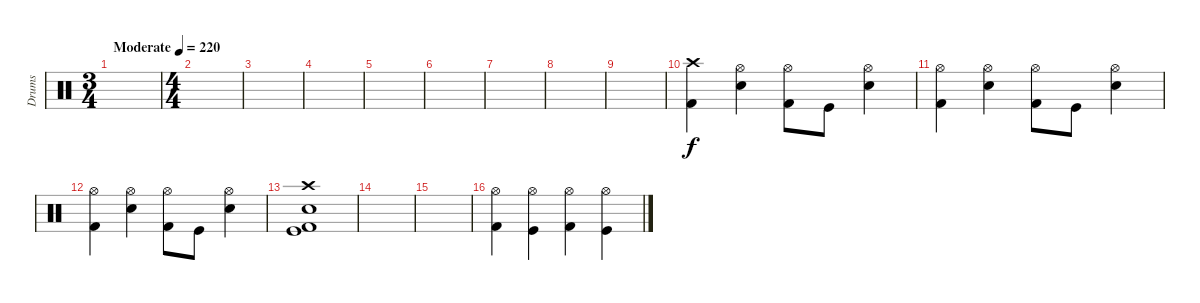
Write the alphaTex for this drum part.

\track ("Drums" "Drums") {instrument percussion}
\staff {score}
\articulation defaults
\ts (3 4)
\tempo (220 "Moderate")
\clef neutral
\ks c
|
\ts (4 4)
|
|
|
|
|
|
|
|
("Crash high (hit)" "Kick (hit) 2").4 ("Hi-Hat (open)" "Electric Snare (hit)").4 ("Hi-Hat (open)" "Kick (hit) 2").8 "Kick (hit)".8 ("Hi-Hat (open)" "Electric Snare (hit)").4 |
("Hi-Hat (open)" "Kick (hit) 2").4 ("Hi-Hat (open)" "Electric Snare (hit)").4 ("Hi-Hat (open)" "Kick (hit) 2").8 "Kick (hit)".8 ("Hi-Hat (open)" "Electric Snare (hit)").4 |
("Hi-Hat (open)" "Kick (hit) 2").4 ("Hi-Hat (open)" "Electric Snare (hit)").4 ("Hi-Hat (open)" "Kick (hit) 2").8 "Kick (hit)".8 ("Hi-Hat (open)" "Electric Snare (hit)").4 |
("Crash high (hit)" "Electric Snare (hit)" "Kick (hit)" "Kick (hit) 2").1 |
|
|
("Hi-Hat (open)" "Kick (hit) 2").4 ("Hi-Hat (open)" "Kick (hit)").4 ("Hi-Hat (open)" "Kick (hit) 2").4 ("Hi-Hat (open)" "Kick (hit)").4
